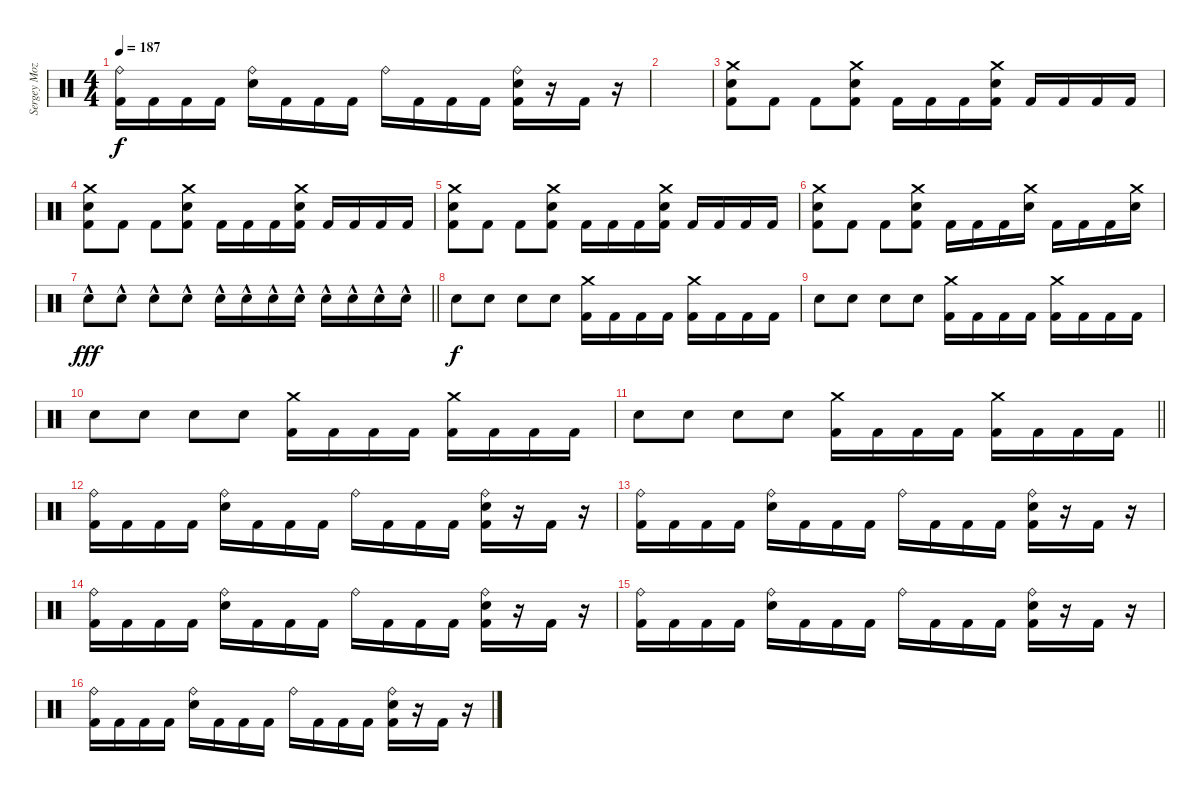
\track ("Sergey Mozalev " "Sergey Moz") {instrument percussion}
\staff {score}
\articulation defaults
\ts (4 4)
\tempo 187
\clef neutral
\ks c
("Ride (bell)" "Kick (hit) 2").16{dy f} "Kick (hit) 2".16 "Kick (hit) 2".16 "Kick (hit) 2".16 ("Ride (bell)" "Electric Snare (hit)").16 "Kick (hit) 2".16 "Kick (hit) 2".16 "Kick (hit) 2".16 "Ride (bell)".16 "Kick (hit) 2".16 "Kick (hit) 2".16 "Kick (hit) 2".16 ("Electric Snare (hit)" "Ride (bell)" "Kick (hit) 2").16 r.16 "Kick (hit) 2".16 r.16 |
|
("Electric Snare (hit)" "Crash medium (hit)" "Kick (hit) 2").8 "Kick (hit) 2".8 "Kick (hit) 2".8 ("Electric Snare (hit)" "Crash medium (hit)" "Kick (hit) 2").8 "Kick (hit) 2".16 "Kick (hit) 2".16 "Kick (hit) 2".16 ("Electric Snare (hit)" "Crash medium (hit)" "Kick (hit) 2").16 "Kick (hit) 2".16 "Kick (hit) 2".16 "Kick (hit) 2".16 "Kick (hit) 2".16 |
("Electric Snare (hit)" "Crash medium (hit)" "Kick (hit) 2").8 "Kick (hit) 2".8 "Kick (hit) 2".8 ("Electric Snare (hit)" "Crash medium (hit)" "Kick (hit) 2").8 "Kick (hit) 2".16 "Kick (hit) 2".16 "Kick (hit) 2".16 ("Electric Snare (hit)" "Crash medium (hit)" "Kick (hit) 2").16 "Kick (hit) 2".16 "Kick (hit) 2".16 "Kick (hit) 2".16 "Kick (hit) 2".16 |
("Electric Snare (hit)" "Crash medium (hit)" "Kick (hit) 2").8 "Kick (hit) 2".8 "Kick (hit) 2".8 ("Electric Snare (hit)" "Crash medium (hit)" "Kick (hit) 2").8 "Kick (hit) 2".16 "Kick (hit) 2".16 "Kick (hit) 2".16 ("Electric Snare (hit)" "Crash medium (hit)" "Kick (hit) 2").16 "Kick (hit) 2".16 "Kick (hit) 2".16 "Kick (hit) 2".16 "Kick (hit) 2".16 |
("Electric Snare (hit)" "Crash medium (hit)" "Kick (hit) 2").8 "Kick (hit) 2".8 "Kick (hit) 2".8 ("Electric Snare (hit)" "Crash medium (hit)" "Kick (hit) 2").8 "Kick (hit) 2".16 "Kick (hit) 2".16 "Kick (hit) 2".16 ("Crash medium (hit)" "Electric Snare (hit)").16 "Kick (hit) 2".16 "Kick (hit) 2".16 "Kick (hit) 2".16 ("Crash medium (hit)" "Electric Snare (hit)").16 |
\barLineRight lightlight "Electric Snare (hit)"{hac}.8{dy fff} "Electric Snare (hit)"{hac}.8 "Electric Snare (hit)"{hac}.8 "Electric Snare (hit)"{hac}.8 "Electric Snare (hit)"{hac}.16 "Electric Snare (hit)"{hac}.16 "Electric Snare (hit)"{hac}.16 "Electric Snare (hit)"{hac}.16 "Electric Snare (hit)"{hac}.16 "Electric Snare (hit)"{hac}.16 "Electric Snare (hit)"{hac}.16 "Electric Snare (hit)"{hac}.16
|
"Electric Snare (hit)".8{dy f} "Electric Snare (hit)".8 "Electric Snare (hit)".8 "Electric Snare (hit)".8 ("Crash medium (hit)" "Kick (hit) 2").16 "Kick (hit) 2".16 "Kick (hit) 2".16 "Kick (hit) 2".16 ("Crash medium (hit)" "Kick (hit) 2").16 "Kick (hit) 2".16 "Kick (hit) 2".16 "Kick (hit) 2".16 |
"Electric Snare (hit)".8 "Electric Snare (hit)".8 "Electric Snare (hit)".8 "Electric Snare (hit)".8 ("Crash medium (hit)" "Kick (hit) 2").16 "Kick (hit) 2".16 "Kick (hit) 2".16 "Kick (hit) 2".16 ("Crash medium (hit)" "Kick (hit) 2").16 "Kick (hit) 2".16 "Kick (hit) 2".16 "Kick (hit) 2".16 |
"Electric Snare (hit)".8 "Electric Snare (hit)".8 "Electric Snare (hit)".8 "Electric Snare (hit)".8 ("Crash medium (hit)" "Kick (hit) 2").16 "Kick (hit) 2".16 "Kick (hit) 2".16 "Kick (hit) 2".16 ("Crash medium (hit)" "Kick (hit) 2").16 "Kick (hit) 2".16 "Kick (hit) 2".16 "Kick (hit) 2".16 |
\barLineRight lightlight "Electric Snare (hit)".8 "Electric Snare (hit)".8 "Electric Snare (hit)".8 "Electric Snare (hit)".8
("Crash medium (hit)" "Kick (hit) 2").16 "Kick (hit) 2".16 "Kick (hit) 2".16 "Kick (hit) 2".16 ("Crash medium (hit)" "Kick (hit) 2").16 "Kick (hit) 2".16 "Kick (hit) 2".16 "Kick (hit) 2".16 |
("Ride (bell)" "Kick (hit) 2").16 "Kick (hit) 2".16 "Kick (hit) 2".16 "Kick (hit) 2".16 ("Ride (bell)" "Electric Snare (hit)").16 "Kick (hit) 2".16 "Kick (hit) 2".16 "Kick (hit) 2".16 "Ride (bell)".16 "Kick (hit) 2".16 "Kick (hit) 2".16 "Kick (hit) 2".16 ("Electric Snare (hit)" "Ride (bell)" "Kick (hit) 2").16 r.16 "Kick (hit) 2".16 r.16 |
("Ride (bell)" "Kick (hit) 2").16 "Kick (hit) 2".16 "Kick (hit) 2".16 "Kick (hit) 2".16 ("Ride (bell)" "Electric Snare (hit)").16 "Kick (hit) 2".16 "Kick (hit) 2".16 "Kick (hit) 2".16 "Ride (bell)".16 "Kick (hit) 2".16 "Kick (hit) 2".16 "Kick (hit) 2".16 ("Electric Snare (hit)" "Ride (bell)" "Kick (hit) 2").16 r.16 "Kick (hit) 2".16 r.16 |
("Ride (bell)" "Kick (hit) 2").16 "Kick (hit) 2".16 "Kick (hit) 2".16 "Kick (hit) 2".16 ("Ride (bell)" "Electric Snare (hit)").16 "Kick (hit) 2".16 "Kick (hit) 2".16 "Kick (hit) 2".16 "Ride (bell)".16 "Kick (hit) 2".16 "Kick (hit) 2".16 "Kick (hit) 2".16 ("Electric Snare (hit)" "Ride (bell)" "Kick (hit) 2").16 r.16 "Kick (hit) 2".16 r.16 |
("Ride (bell)" "Kick (hit) 2").16 "Kick (hit) 2".16 "Kick (hit) 2".16 "Kick (hit) 2".16 ("Ride (bell)" "Electric Snare (hit)").16 "Kick (hit) 2".16 "Kick (hit) 2".16 "Kick (hit) 2".16 "Ride (bell)".16 "Kick (hit) 2".16 "Kick (hit) 2".16 "Kick (hit) 2".16 ("Electric Snare (hit)" "Ride (bell)" "Kick (hit) 2").16 r.16 "Kick (hit) 2".16 r.16 |
("Ride (bell)" "Kick (hit) 2").16 "Kick (hit) 2".16 "Kick (hit) 2".16 "Kick (hit) 2".16 ("Ride (bell)" "Electric Snare (hit)").16 "Kick (hit) 2".16 "Kick (hit) 2".16 "Kick (hit) 2".16 "Ride (bell)".16 "Kick (hit) 2".16 "Kick (hit) 2".16 "Kick (hit) 2".16 ("Electric Snare (hit)" "Ride (bell)" "Kick (hit) 2").16 r.16 "Kick (hit) 2".16 r.16
